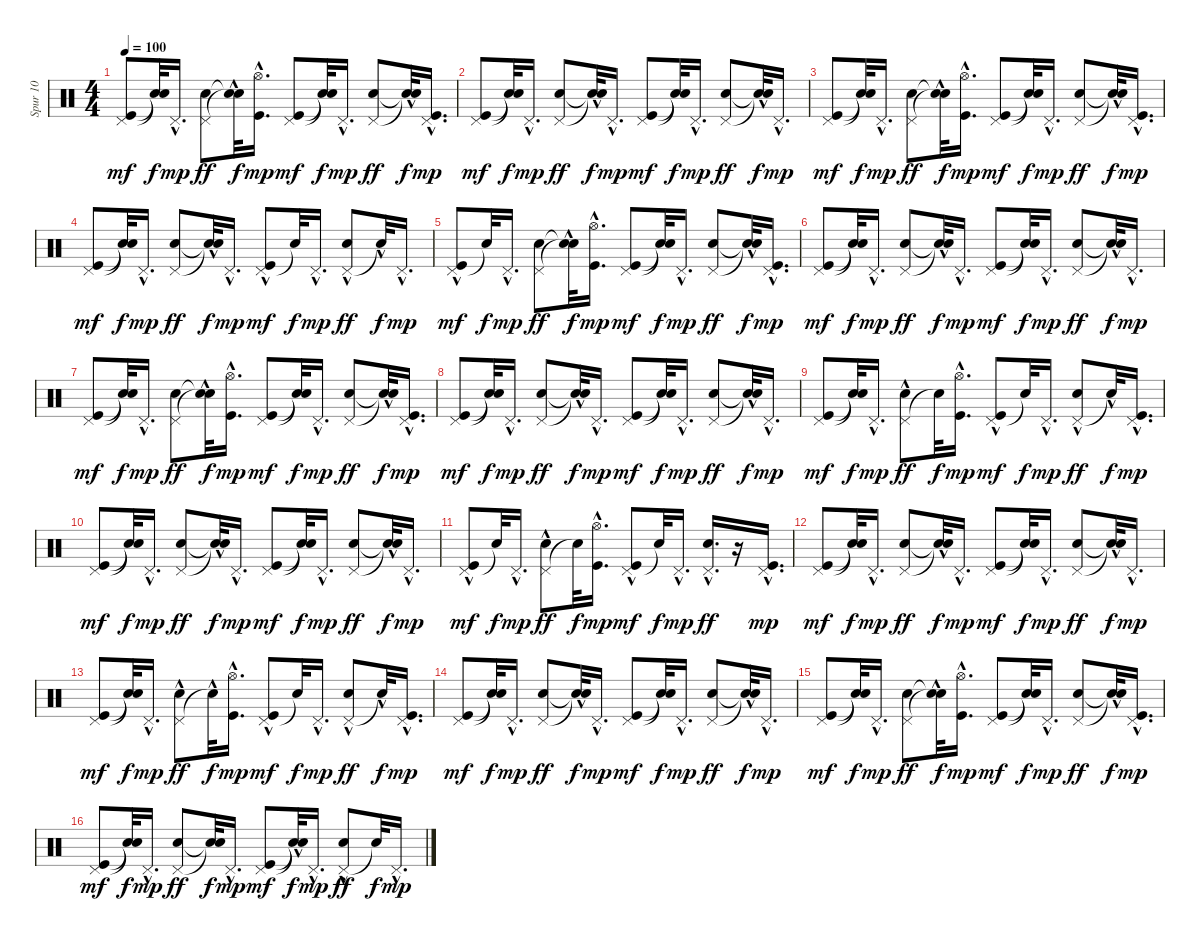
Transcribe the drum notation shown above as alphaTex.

\track ("Spur 10" "Spur 10") {instrument percussion}
\staff {score}
\articulation defaults
\ts (4 4)
\tempo 100
\clef neutral
\ks c
("Pedal Hi-Hat (hit)" "Kick (hit)").8{dy mf} ("Snare (hit)"{t} "Snare (hit)"{t}).32{dy f} "Pedal Hi-Hat (hit)"{hac}.16{d dy mp} ("Pedal Hi-Hat (hit)" "Hand Clap (hit)").8{dy ff} ("Snare (hit)"{t} "Snare (hit)"{hac t}).32{dy f} ("Hi-Hat (open)" "Kick (hit)"{hac}).16{d dy mp} ("Pedal Hi-Hat (hit)" "Kick (hit)").8{dy mf} ("Snare (hit)"{t} "Snare (hit)"{t}).32{dy f} "Pedal Hi-Hat (hit)"{hac}.16{d dy mp} ("Pedal Hi-Hat (hit)" "Hand Clap (hit)").8{dy ff} ("Snare (hit)"{t} "Snare (hit)"{hac t}).32{dy f} ("Pedal Hi-Hat (hit)"{hac} "Kick (hit)"{hac}).16{d dy mp} |
("Pedal Hi-Hat (hit)" "Kick (hit)").8{dy mf} ("Snare (hit)"{t} "Snare (hit)"{t}).32{dy f} "Pedal Hi-Hat (hit)"{hac}.16{d dy mp} ("Pedal Hi-Hat (hit)" "Hand Clap (hit)").8{dy ff} ("Snare (hit)"{t} "Snare (hit)"{hac t}).32{dy f} "Pedal Hi-Hat (hit)"{hac}.16{d dy mp} ("Pedal Hi-Hat (hit)" "Kick (hit)").8{dy mf} ("Snare (hit)"{t} "Snare (hit)"{t}).32{dy f} "Pedal Hi-Hat (hit)"{hac}.16{d dy mp} ("Pedal Hi-Hat (hit)" "Hand Clap (hit)").8{dy ff} ("Snare (hit)"{t} "Snare (hit)"{hac t}).32{dy f} "Pedal Hi-Hat (hit)"{hac}.16{d dy mp} |
("Pedal Hi-Hat (hit)" "Kick (hit)").8{dy mf} ("Snare (hit)"{t} "Snare (hit)"{t}).32{dy f} "Pedal Hi-Hat (hit)"{hac}.16{d dy mp} ("Pedal Hi-Hat (hit)" "Hand Clap (hit)").8{dy ff} ("Snare (hit)"{t} "Snare (hit)"{hac t}).32{dy f} ("Hi-Hat (open)" "Kick (hit)"{hac}).16{d dy mp} ("Pedal Hi-Hat (hit)" "Kick (hit)").8{dy mf} ("Snare (hit)"{t} "Snare (hit)"{t}).32{dy f} "Pedal Hi-Hat (hit)"{hac}.16{d dy mp} ("Pedal Hi-Hat (hit)" "Hand Clap (hit)").8{dy ff} ("Snare (hit)"{t} "Snare (hit)"{hac t}).32{dy f} ("Pedal Hi-Hat (hit)"{hac} "Kick (hit)"{hac}).16{d dy mp} |
("Pedal Hi-Hat (hit)" "Kick (hit)").8{dy mf} ("Snare (hit)"{t} "Snare (hit)"{t}).32{dy f} "Pedal Hi-Hat (hit)"{hac}.16{d dy mp} ("Pedal Hi-Hat (hit)" "Hand Clap (hit)").8{dy ff} ("Snare (hit)"{t} "Snare (hit)"{hac t}).32{dy f} "Pedal Hi-Hat (hit)"{hac}.16{d dy mp} ("Pedal Hi-Hat (hit)"{hac} "Kick (hit)").8{dy mf} "Snare (hit)"{t}.32{dy f} "Pedal Hi-Hat (hit)"{hac}.16{d dy mp} ("Pedal Hi-Hat (hit)"{hac} "Hand Clap (hit)").8{dy ff} "Snare (hit)"{hac t}.32{dy f} "Pedal Hi-Hat (hit)"{hac}.16{d dy mp} |
("Pedal Hi-Hat (hit)"{hac} "Kick (hit)").8{dy mf} "Snare (hit)"{t}.32{dy f} "Pedal Hi-Hat (hit)"{hac}.16{d dy mp} ("Pedal Hi-Hat (hit)" "Hand Clap (hit)").8{dy ff} ("Snare (hit)"{t} "Snare (hit)"{hac t}).32{dy f} ("Hi-Hat (open)" "Kick (hit)"{hac}).16{d dy mp} ("Pedal Hi-Hat (hit)" "Kick (hit)").8{dy mf} ("Snare (hit)"{t} "Snare (hit)"{t}).32{dy f} "Pedal Hi-Hat (hit)"{hac}.16{d dy mp} ("Pedal Hi-Hat (hit)" "Hand Clap (hit)").8{dy ff} ("Snare (hit)"{t} "Snare (hit)"{hac t}).32{dy f} ("Pedal Hi-Hat (hit)"{hac} "Kick (hit)"{hac}).16{d dy mp} |
("Pedal Hi-Hat (hit)" "Kick (hit)").8{dy mf} ("Snare (hit)"{t} "Snare (hit)"{t}).32{dy f} "Pedal Hi-Hat (hit)"{hac}.16{d dy mp} ("Pedal Hi-Hat (hit)" "Hand Clap (hit)").8{dy ff} ("Snare (hit)"{t} "Snare (hit)"{hac t}).32{dy f} "Pedal Hi-Hat (hit)"{hac}.16{d dy mp} ("Pedal Hi-Hat (hit)" "Kick (hit)").8{dy mf} ("Snare (hit)"{t} "Snare (hit)"{t}).32{dy f} "Pedal Hi-Hat (hit)"{hac}.16{d dy mp} ("Pedal Hi-Hat (hit)" "Hand Clap (hit)").8{dy ff} ("Snare (hit)"{t} "Snare (hit)"{hac t}).32{dy f} "Pedal Hi-Hat (hit)"{hac}.16{d dy mp} |
("Pedal Hi-Hat (hit)" "Kick (hit)").8{dy mf} ("Snare (hit)"{t} "Snare (hit)"{t}).32{dy f} "Pedal Hi-Hat (hit)"{hac}.16{d dy mp} ("Pedal Hi-Hat (hit)" "Hand Clap (hit)").8{dy ff} ("Snare (hit)"{t} "Snare (hit)"{hac t}).32{dy f} ("Hi-Hat (open)" "Kick (hit)"{hac}).16{d dy mp} ("Pedal Hi-Hat (hit)" "Kick (hit)").8{dy mf} ("Snare (hit)"{t} "Snare (hit)"{t}).32{dy f} "Pedal Hi-Hat (hit)"{hac}.16{d dy mp} ("Pedal Hi-Hat (hit)" "Hand Clap (hit)").8{dy ff} ("Snare (hit)"{t} "Snare (hit)"{hac t}).32{dy f} ("Pedal Hi-Hat (hit)"{hac} "Kick (hit)"{hac}).16{d dy mp} |
("Pedal Hi-Hat (hit)" "Kick (hit)").8{dy mf} ("Snare (hit)"{t} "Snare (hit)"{t}).32{dy f} "Pedal Hi-Hat (hit)"{hac}.16{d dy mp} ("Pedal Hi-Hat (hit)" "Hand Clap (hit)").8{dy ff} ("Snare (hit)"{t} "Snare (hit)"{hac t}).32{dy f} "Pedal Hi-Hat (hit)"{hac}.16{d dy mp} ("Pedal Hi-Hat (hit)" "Kick (hit)").8{dy mf} ("Snare (hit)"{t} "Snare (hit)"{t}).32{dy f} "Pedal Hi-Hat (hit)"{hac}.16{d dy mp} ("Pedal Hi-Hat (hit)" "Hand Clap (hit)").8{dy ff} ("Snare (hit)"{t} "Snare (hit)"{hac t}).32{dy f} "Pedal Hi-Hat (hit)"{hac}.16{d dy mp} |
("Pedal Hi-Hat (hit)" "Kick (hit)").8{dy mf} ("Snare (hit)"{t} "Snare (hit)"{t}).32{dy f} "Pedal Hi-Hat (hit)"{hac}.16{d dy mp} ("Pedal Hi-Hat (hit)"{hac} "Hand Clap (hit)").8{dy ff} "Snare (hit)"{t}.32{dy f} ("Hi-Hat (open)" "Kick (hit)"{hac}).16{d dy mp} ("Pedal Hi-Hat (hit)"{hac} "Kick (hit)").8{dy mf} "Snare (hit)"{t}.32{dy f} "Pedal Hi-Hat (hit)"{hac}.16{d dy mp} ("Pedal Hi-Hat (hit)"{hac} "Hand Clap (hit)").8{dy ff} "Snare (hit)"{hac t}.32{dy f} ("Pedal Hi-Hat (hit)"{hac} "Kick (hit)"{hac}).16{d dy mp} |
("Pedal Hi-Hat (hit)" "Kick (hit)").8{dy mf} ("Snare (hit)"{t} "Snare (hit)"{t}).32{dy f} "Pedal Hi-Hat (hit)"{hac}.16{d dy mp} ("Pedal Hi-Hat (hit)" "Hand Clap (hit)").8{dy ff} ("Snare (hit)"{t} "Snare (hit)"{hac t}).32{dy f} "Pedal Hi-Hat (hit)"{hac}.16{d dy mp} ("Pedal Hi-Hat (hit)" "Kick (hit)").8{dy mf} ("Snare (hit)"{t} "Snare (hit)"{t}).32{dy f} "Pedal Hi-Hat (hit)"{hac}.16{d dy mp} ("Pedal Hi-Hat (hit)" "Hand Clap (hit)").8{dy ff} ("Snare (hit)"{t} "Snare (hit)"{hac t}).32{dy f} "Pedal Hi-Hat (hit)"{hac}.16{d dy mp} |
("Pedal Hi-Hat (hit)" "Kick (hit)"{hac}).8{dy mf} "Snare (hit)"{t}.32{dy f} "Pedal Hi-Hat (hit)"{hac}.16{d dy mp} ("Pedal Hi-Hat (hit)"{hac} "Hand Clap (hit)").8{dy ff} "Snare (hit)"{t}.32{dy f} ("Hi-Hat (open)" "Kick (hit)"{hac}).16{d dy mp} ("Pedal Hi-Hat (hit)" "Kick (hit)"{hac}).8{dy mf} "Snare (hit)"{t}.32{dy f} "Pedal Hi-Hat (hit)"{hac}.16{d dy mp} ("Pedal Hi-Hat (hit)"{hac} "Hand Clap (hit)"{hac}).16{d dy ff} r.16 ("Pedal Hi-Hat (hit)"{hac} "Kick (hit)"{hac}).16{d dy mp} |
("Pedal Hi-Hat (hit)" "Kick (hit)").8{dy mf} ("Snare (hit)"{t} "Snare (hit)"{t}).32{dy f} "Pedal Hi-Hat (hit)"{hac}.16{d dy mp} ("Pedal Hi-Hat (hit)" "Hand Clap (hit)").8{dy ff} ("Snare (hit)"{t} "Snare (hit)"{hac t}).32{dy f} "Pedal Hi-Hat (hit)"{hac}.16{d dy mp} ("Pedal Hi-Hat (hit)" "Kick (hit)").8{dy mf} ("Snare (hit)"{t} "Snare (hit)"{t}).32{dy f} "Pedal Hi-Hat (hit)"{hac}.16{d dy mp} ("Pedal Hi-Hat (hit)" "Hand Clap (hit)").8{dy ff} ("Snare (hit)"{t} "Snare (hit)"{hac t}).32{dy f} "Pedal Hi-Hat (hit)"{hac}.16{d dy mp} |
("Pedal Hi-Hat (hit)" "Kick (hit)").8{dy mf} ("Snare (hit)"{t} "Snare (hit)"{t}).32{dy f} "Pedal Hi-Hat (hit)"{hac}.16{d dy mp} ("Pedal Hi-Hat (hit)"{hac} "Hand Clap (hit)").8{dy ff} "Snare (hit)"{hac t}.32{dy f} ("Hi-Hat (open)" "Kick (hit)"{hac}).16{d dy mp} ("Pedal Hi-Hat (hit)"{hac} "Kick (hit)").8{dy mf} "Snare (hit)"{t}.32{dy f} "Pedal Hi-Hat (hit)"{hac}.16{d dy mp} ("Pedal Hi-Hat (hit)"{hac} "Hand Clap (hit)").8{dy ff} "Snare (hit)"{hac t}.32{dy f} ("Pedal Hi-Hat (hit)"{hac} "Kick (hit)"{hac}).16{d dy mp} |
("Pedal Hi-Hat (hit)" "Kick (hit)").8{dy mf} ("Snare (hit)"{t} "Snare (hit)"{t}).32{dy f} "Pedal Hi-Hat (hit)"{hac}.16{d dy mp} ("Pedal Hi-Hat (hit)" "Hand Clap (hit)").8{dy ff} ("Snare (hit)"{t} "Snare (hit)"{hac t}).32{dy f} "Pedal Hi-Hat (hit)"{hac}.16{d dy mp} ("Pedal Hi-Hat (hit)" "Kick (hit)").8{dy mf} ("Snare (hit)"{t} "Snare (hit)"{t}).32{dy f} "Pedal Hi-Hat (hit)"{hac}.16{d dy mp} ("Pedal Hi-Hat (hit)" "Hand Clap (hit)").8{dy ff} ("Snare (hit)"{t} "Snare (hit)"{hac t}).32{dy f} "Pedal Hi-Hat (hit)"{hac}.16{d dy mp} |
("Pedal Hi-Hat (hit)" "Kick (hit)").8{dy mf} ("Snare (hit)"{t} "Snare (hit)"{t}).32{dy f} "Pedal Hi-Hat (hit)"{hac}.16{d dy mp} ("Pedal Hi-Hat (hit)" "Hand Clap (hit)").8{dy ff} ("Snare (hit)"{t} "Snare (hit)"{hac t}).32{dy f} ("Hi-Hat (open)"{hac} "Kick (hit)"{hac}).16{d dy mp} ("Pedal Hi-Hat (hit)" "Kick (hit)").8{dy mf} ("Snare (hit)"{t} "Snare (hit)"{t}).32{dy f} "Pedal Hi-Hat (hit)"{hac}.16{d dy mp} ("Pedal Hi-Hat (hit)" "Hand Clap (hit)").8{dy ff} ("Snare (hit)"{t} "Snare (hit)"{hac t}).32{dy f} ("Pedal Hi-Hat (hit)"{hac} "Kick (hit)"{hac}).16{d dy mp} |
("Pedal Hi-Hat (hit)" "Kick (hit)").8{dy mf} ("Snare (hit)"{t} "Snare (hit)"{t}).32{dy f} "Pedal Hi-Hat (hit)"{hac}.16{d dy mp} ("Pedal Hi-Hat (hit)" "Hand Clap (hit)").8{dy ff} ("Snare (hit)"{t} "Snare (hit)"{t}).32{dy f} "Pedal Hi-Hat (hit)"{hac}.16{d dy mp} ("Pedal Hi-Hat (hit)" "Kick (hit)").8{dy mf} ("Snare (hit)"{t} "Snare (hit)"{hac t}).32{dy f} "Pedal Hi-Hat (hit)"{hac}.16{d dy mp} ("Pedal Hi-Hat (hit)" "Hand Clap (hit)"{hac}).8{dy ff} "Snare (hit)"{t}.32{dy f} "Pedal Hi-Hat (hit)"{hac}.16{d dy mp}
